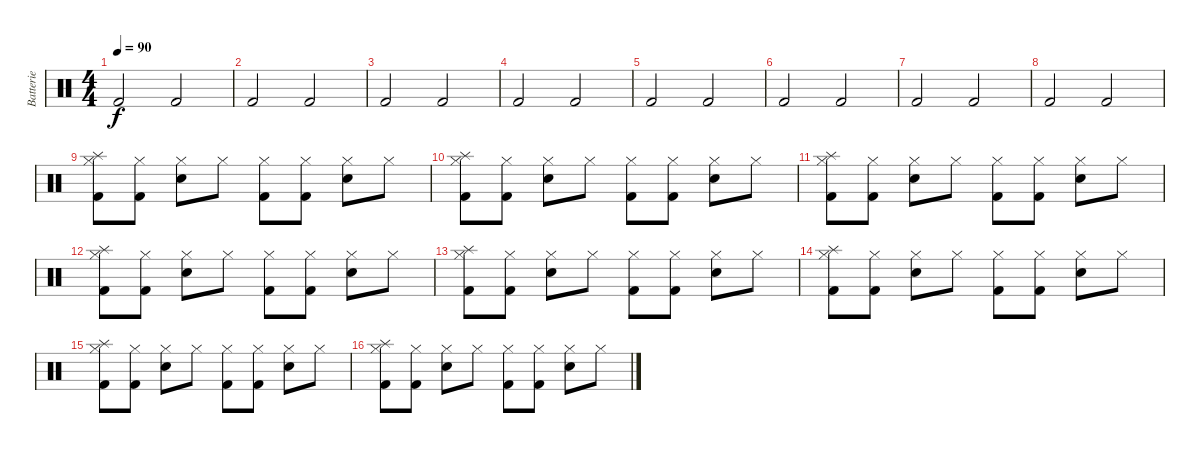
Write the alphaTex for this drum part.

\track ("Batterie" "Batterie") {instrument percussion}
\staff {score}
\articulation defaults
\ts (4 4)
\tempo 90
\clef neutral
\ks c "Kick (hit) 2".2{dy f} "Kick (hit) 2".2
|
"Kick (hit) 2".2 "Kick (hit) 2".2 |
"Kick (hit) 2".2 "Kick (hit) 2".2 |
"Kick (hit) 2".2 "Kick (hit) 2".2 |
"Kick (hit) 2".2 "Kick (hit) 2".2 |
"Kick (hit) 2".2 "Kick (hit) 2".2 |
"Kick (hit) 2".2 "Kick (hit) 2".2 |
"Kick (hit) 2".2 "Kick (hit) 2".2 |
("Splash (hit)" "Hi-Hat (closed)" "Kick (hit) 2").8 ("Hi-Hat (closed)" "Kick (hit) 2").8 ("Hi-Hat (closed)" "Snare (hit) 2").8 "Hi-Hat (closed)".8 ("Hi-Hat (closed)" "Kick (hit) 2").8 ("Hi-Hat (closed)" "Kick (hit) 2").8 ("Hi-Hat (closed)" "Snare (hit) 2").8 "Hi-Hat (closed)".8 |
("Splash (hit)" "Hi-Hat (closed)" "Kick (hit) 2").8 ("Hi-Hat (closed)" "Kick (hit) 2").8 ("Hi-Hat (closed)" "Snare (hit) 2").8 "Hi-Hat (closed)".8 ("Hi-Hat (closed)" "Kick (hit) 2").8 ("Hi-Hat (closed)" "Kick (hit) 2").8 ("Hi-Hat (closed)" "Snare (hit) 2").8 "Hi-Hat (closed)".8 |
("Splash (hit)" "Hi-Hat (closed)" "Kick (hit) 2").8 ("Hi-Hat (closed)" "Kick (hit) 2").8 ("Hi-Hat (closed)" "Snare (hit) 2").8 "Hi-Hat (closed)".8 ("Hi-Hat (closed)" "Kick (hit) 2").8 ("Hi-Hat (closed)" "Kick (hit) 2").8 ("Hi-Hat (closed)" "Snare (hit) 2").8 "Hi-Hat (closed)".8 |
("Splash (hit)" "Hi-Hat (closed)" "Kick (hit) 2").8 ("Hi-Hat (closed)" "Kick (hit) 2").8 ("Hi-Hat (closed)" "Snare (hit) 2").8 "Hi-Hat (closed)".8 ("Hi-Hat (closed)" "Kick (hit) 2").8 ("Hi-Hat (closed)" "Kick (hit) 2").8 ("Hi-Hat (closed)" "Snare (hit) 2").8 "Hi-Hat (closed)".8 |
("Splash (hit)" "Hi-Hat (closed)" "Kick (hit) 2").8 ("Hi-Hat (closed)" "Kick (hit) 2").8 ("Hi-Hat (closed)" "Snare (hit) 2").8 "Hi-Hat (closed)".8 ("Hi-Hat (closed)" "Kick (hit) 2").8 ("Hi-Hat (closed)" "Kick (hit) 2").8 ("Hi-Hat (closed)" "Snare (hit) 2").8 "Hi-Hat (closed)".8 |
("Splash (hit)" "Hi-Hat (closed)" "Kick (hit) 2").8 ("Hi-Hat (closed)" "Kick (hit) 2").8 ("Hi-Hat (closed)" "Snare (hit) 2").8 "Hi-Hat (closed)".8 ("Hi-Hat (closed)" "Kick (hit) 2").8 ("Hi-Hat (closed)" "Kick (hit) 2").8 ("Hi-Hat (closed)" "Snare (hit) 2").8 "Hi-Hat (closed)".8 |
("Splash (hit)" "Hi-Hat (closed)" "Kick (hit) 2").8 ("Hi-Hat (closed)" "Kick (hit) 2").8 ("Hi-Hat (closed)" "Snare (hit) 2").8 "Hi-Hat (closed)".8 ("Hi-Hat (closed)" "Kick (hit) 2").8 ("Hi-Hat (closed)" "Kick (hit) 2").8 ("Hi-Hat (closed)" "Snare (hit) 2").8 "Hi-Hat (closed)".8 |
("Splash (hit)" "Hi-Hat (closed)" "Kick (hit) 2").8 ("Hi-Hat (closed)" "Kick (hit) 2").8 ("Hi-Hat (closed)" "Snare (hit) 2").8 "Hi-Hat (closed)".8 ("Hi-Hat (closed)" "Kick (hit) 2").8 ("Hi-Hat (closed)" "Kick (hit) 2").8 ("Hi-Hat (closed)" "Snare (hit) 2").8 "Hi-Hat (closed)".8
